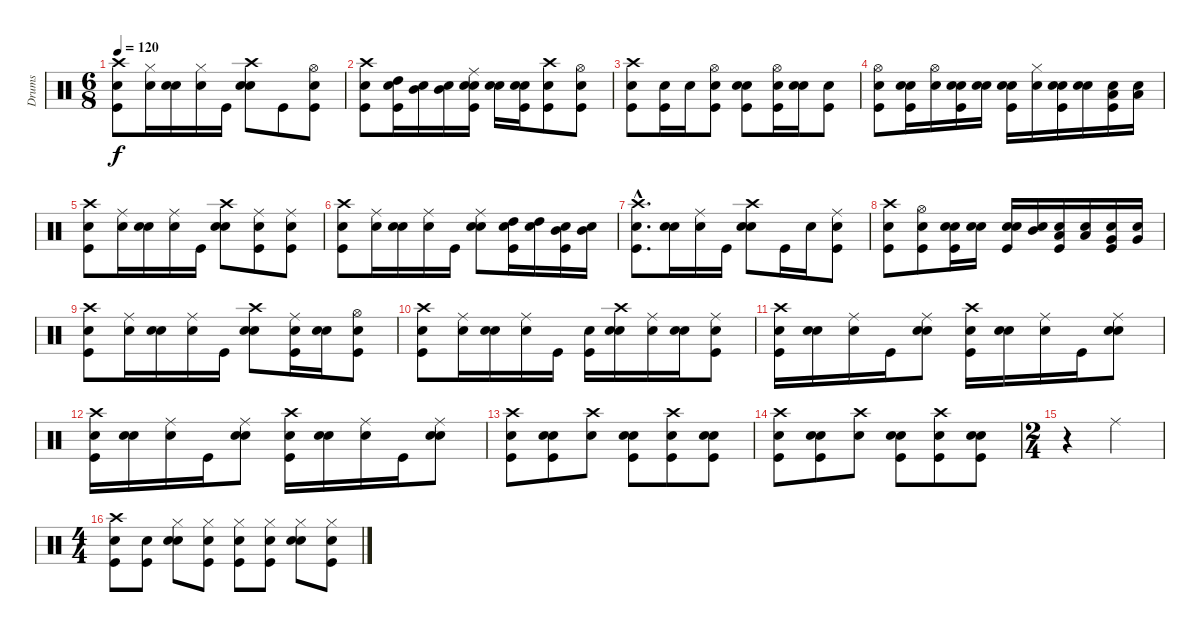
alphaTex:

\track ("Drums" "Drums") {instrument percussion}
\staff {score}
\articulation defaults
\ts (6 8)
\tempo 120
\clef neutral
\ks c
("Snare (hit)" "Kick (hit)" "Crash high (hit)").8{dy f} ("Snare (hit)" "Hi-Hat (closed)").16 ("Snare (hit)" "Electric Snare (hit)").16 ("Snare (hit)" "Hi-Hat (closed)").16 "Kick (hit)".16 ("Snare (hit)" "Electric Snare (hit)" "Crash high (hit)").8 "Kick (hit)".8 ("Snare (hit)" "Kick (hit)" "Hi-Hat (open)").8 |
("Snare (hit)" "Kick (hit)" "Crash high (hit)").8 ("Snare (hit)" "Kick (hit)" "High Tom (hit)").16 ("Snare (hit)" "Mid Tom (hit)").16 ("Snare (hit)" "Mid Tom (hit)").16 ("Snare (hit)" "Kick (hit)" "Electric Snare (hit)" "Ride (middle)").16 ("Snare (hit)" "Electric Snare (hit)").16 ("Snare (hit)" "Kick (hit)" "Electric Snare (hit)").16 ("Snare (hit)" "Kick (hit)" "Crash high (hit)").8 ("Snare (hit)" "Kick (hit)" "Hi-Hat (open)").8 |
("Snare (hit)" "Kick (hit)" "Crash high (hit)").8 ("Snare (hit)" "Kick (hit)").16 "Electric Snare (hit)".16 ("Snare (hit)" "Kick (hit)" "Hi-Hat (open)").8 ("Snare (hit)" "Kick (hit)" "Electric Snare (hit)").8 ("Snare (hit)" "Kick (hit)" "Hi-Hat (open)").16 ("Snare (hit)" "Electric Snare (hit)").16 ("Snare (hit)" "Kick (hit)").8 |
("Snare (hit)" "Kick (hit)" "Hi-Hat (open)").8 ("Snare (hit)" "Kick (hit)" "Electric Snare (hit)").16 ("Snare (hit)" "Hi-Hat (open)").16 ("Snare (hit)" "Kick (hit)" "Electric Snare (hit)").16 ("Snare (hit)" "Electric Snare (hit)").16 ("Snare (hit)" "Kick (hit)" "Electric Snare (hit)").16 ("Snare (hit)" "Hi-Hat (closed)").16 ("Snare (hit)" "Kick (hit)" "Electric Snare (hit)").16 ("Snare (hit)" "Electric Snare (hit)").16 ("Snare (hit)" "Kick (hit)" "Low Tom (hit)").16 ("Snare (hit)" "Low Tom (hit)").16 |
("Snare (hit)" "Kick (hit)" "Crash high (hit)").8 ("Snare (hit)" "Ride (middle)").16 ("Snare (hit)" "Electric Snare (hit)").16 ("Snare (hit)" "Ride (middle)").16 "Kick (hit)".16 ("Snare (hit)" "Electric Snare (hit)" "Crash high (hit)").8 ("Snare (hit)" "Kick (hit)" "Ride (middle)").8 ("Snare (hit)" "Kick (hit)" "Ride (middle)").8 |
("Snare (hit)" "Kick (hit)" "Crash high (hit)").8 ("Snare (hit)" "Ride (middle)").16 ("Snare (hit)" "Electric Snare (hit)").16 ("Snare (hit)" "Ride (middle)").16 "Kick (hit)".16 ("Snare (hit)" "Electric Snare (hit)" "Ride (middle)").8 ("Snare (hit)" "Kick (hit)" "High Tom (hit)").16 ("Snare (hit)" "High Tom (hit)").16 ("Snare (hit)" "Kick (hit)" "Mid Tom (hit)").16 ("Snare (hit)" "Mid Tom (hit)").16 |
("Snare (hit)"{hac} "Kick (hit)"{hac} "Crash high (hit)"{hac}).8{d} ("Snare (hit)" "Electric Snare (hit)").16 ("Snare (hit)" "Ride (middle)").16 "Kick (hit)".16 ("Snare (hit)" "Electric Snare (hit)" "Crash high (hit)").8 "Kick (hit)".16 "Electric Snare (hit)".16 ("Snare (hit)" "Kick (hit)" "Ride (middle)").8 |
("Snare (hit)" "Kick (hit)" "Crash high (hit)").8 ("Snare (hit)" "Kick (hit)" "Hi-Hat (open)").8 ("Snare (hit)" "Kick (hit)" "Electric Snare (hit)").16 ("Snare (hit)" "Electric Snare (hit)").16 ("Snare (hit)" "Kick (hit)" "Electric Snare (hit)").16 ("Snare (hit)" "Mid Tom (hit)").16 ("Snare (hit)" "Kick (hit)" "Low Tom (hit)").16 ("Snare (hit)" "Low Tom (hit)").16 ("Snare (hit)" "Kick (hit)" "Very Low Tom (hit)").16 ("Snare (hit)" "Very Low Tom (hit)").16 |
("Snare (hit)" "Kick (hit)" "Crash high (hit)").8 ("Snare (hit)" "Ride (middle)").16 ("Snare (hit)" "Electric Snare (hit)").16 ("Snare (hit)" "Ride (middle)").16 "Kick (hit)".16 ("Snare (hit)" "Electric Snare (hit)" "Crash high (hit)").8 ("Snare (hit)" "Kick (hit)" "Ride (middle)").16 ("Snare (hit)" "Electric Snare (hit)").16 ("Snare (hit)" "Kick (hit)" "Hi-Hat (open)").8 |
("Snare (hit)" "Kick (hit)" "Crash high (hit)").8 ("Snare (hit)" "Ride (middle)").16 ("Snare (hit)" "Electric Snare (hit)").16 ("Snare (hit)" "Ride (middle)").16 "Kick (hit)".16 ("Snare (hit)" "Kick (hit)").16 ("Snare (hit)" "Electric Snare (hit)" "Crash high (hit)").16 ("Snare (hit)" "Ride (middle)").16 ("Snare (hit)" "Electric Snare (hit)").16 ("Snare (hit)" "Kick (hit)" "Ride (middle)").8 |
("Snare (hit)" "Kick (hit)" "Crash high (hit)").16 ("Snare (hit)" "Electric Snare (hit)").16 ("Snare (hit)" "Ride (middle)").16 "Kick (hit)".16 ("Snare (hit)" "Electric Snare (hit)" "Ride (middle)").8 ("Snare (hit)" "Kick (hit)" "Crash high (hit)").16 ("Snare (hit)" "Electric Snare (hit)").16 ("Snare (hit)" "Ride (middle)").16 "Kick (hit)".16 ("Snare (hit)" "Electric Snare (hit)" "Ride (middle)").8 |
("Snare (hit)" "Crash high (hit)" "Kick (hit)").16 ("Snare (hit)" "Electric Snare (hit)").16 ("Snare (hit)" "Ride (middle)").16 "Kick (hit)".16 ("Snare (hit)" "Electric Snare (hit)" "Ride (middle)").8 ("Snare (hit)" "Crash high (hit)" "Kick (hit)").16 ("Snare (hit)" "Electric Snare (hit)").16 ("Snare (hit)" "Ride (middle)").16 "Kick (hit)".16 ("Snare (hit)" "Electric Snare (hit)" "Ride (middle)").8 |
("Snare (hit)" "Kick (hit)" "Crash high (hit)").8 ("Snare (hit)" "Kick (hit)" "Electric Snare (hit)").8 ("Snare (hit)" "Crash high (hit)").8 ("Snare (hit)" "Kick (hit)" "Electric Snare (hit)").8 ("Snare (hit)" "Kick (hit)" "Crash high (hit)").8 ("Snare (hit)" "Kick (hit)" "Electric Snare (hit)").8 |
("Snare (hit)" "Kick (hit)" "Crash high (hit)").8 ("Snare (hit)" "Kick (hit)" "Electric Snare (hit)").8 ("Snare (hit)" "Crash high (hit)").8 ("Snare (hit)" "Kick (hit)" "Electric Snare (hit)").8 ("Snare (hit)" "Kick (hit)" "Crash high (hit)").8 ("Snare (hit)" "Kick (hit)" "Electric Snare (hit)").8 |
\ts (2 4)
r.4 "Ride (middle)".4 |
\ts (4 4)
("Snare (hit)" "Kick (hit)" "Crash high (hit)").8 ("Snare (hit)" "Kick (hit)").8 ("Snare (hit)" "Electric Snare (hit)" "Hi-Hat (closed)").8 ("Snare (hit)" "Kick (hit)" "Hi-Hat (closed)").8 ("Snare (hit)" "Kick (hit)" "Hi-Hat (closed)").8 ("Snare (hit)" "Kick (hit)" "Hi-Hat (closed)").8 ("Snare (hit)" "Electric Snare (hit)" "Hi-Hat (closed)").8 ("Snare (hit)" "Kick (hit)" "Hi-Hat (closed)").8
